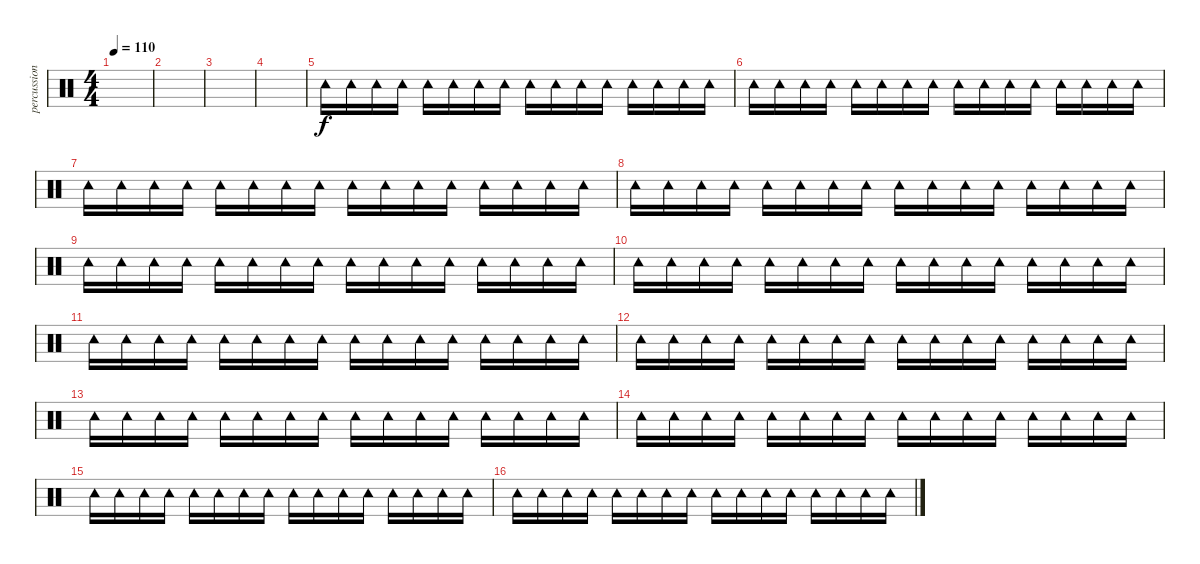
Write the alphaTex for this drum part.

\track ("percussioni" "percussion") {instrument percussion}
\staff {score}
\articulation defaults
\ts (4 4)
\tempo 110
\clef neutral
\ks c
|
|
|
|
"Tambourine (hit)".16 "Tambourine (hit)".16 "Tambourine (hit)".16 "Tambourine (hit)".16 "Tambourine (hit)".16 "Tambourine (hit)".16 "Tambourine (hit)".16 "Tambourine (hit)".16 "Tambourine (hit)".16 "Tambourine (hit)".16 "Tambourine (hit)".16 "Tambourine (hit)".16 "Tambourine (hit)".16 "Tambourine (hit)".16 "Tambourine (hit)".16 "Tambourine (hit)".16 |
"Tambourine (hit)".16 "Tambourine (hit)".16 "Tambourine (hit)".16 "Tambourine (hit)".16 "Tambourine (hit)".16 "Tambourine (hit)".16 "Tambourine (hit)".16 "Tambourine (hit)".16 "Tambourine (hit)".16 "Tambourine (hit)".16 "Tambourine (hit)".16 "Tambourine (hit)".16 "Tambourine (hit)".16 "Tambourine (hit)".16 "Tambourine (hit)".16 "Tambourine (hit)".16 |
"Tambourine (hit)".16 "Tambourine (hit)".16 "Tambourine (hit)".16 "Tambourine (hit)".16 "Tambourine (hit)".16 "Tambourine (hit)".16 "Tambourine (hit)".16 "Tambourine (hit)".16 "Tambourine (hit)".16 "Tambourine (hit)".16 "Tambourine (hit)".16 "Tambourine (hit)".16 "Tambourine (hit)".16 "Tambourine (hit)".16 "Tambourine (hit)".16 "Tambourine (hit)".16 |
"Tambourine (hit)".16 "Tambourine (hit)".16 "Tambourine (hit)".16 "Tambourine (hit)".16 "Tambourine (hit)".16 "Tambourine (hit)".16 "Tambourine (hit)".16 "Tambourine (hit)".16 "Tambourine (hit)".16 "Tambourine (hit)".16 "Tambourine (hit)".16 "Tambourine (hit)".16 "Tambourine (hit)".16 "Tambourine (hit)".16 "Tambourine (hit)".16 "Tambourine (hit)".16 |
"Tambourine (hit)".16 "Tambourine (hit)".16 "Tambourine (hit)".16 "Tambourine (hit)".16 "Tambourine (hit)".16 "Tambourine (hit)".16 "Tambourine (hit)".16 "Tambourine (hit)".16 "Tambourine (hit)".16 "Tambourine (hit)".16 "Tambourine (hit)".16 "Tambourine (hit)".16 "Tambourine (hit)".16 "Tambourine (hit)".16 "Tambourine (hit)".16 "Tambourine (hit)".16 |
"Tambourine (hit)".16 "Tambourine (hit)".16 "Tambourine (hit)".16 "Tambourine (hit)".16 "Tambourine (hit)".16 "Tambourine (hit)".16 "Tambourine (hit)".16 "Tambourine (hit)".16 "Tambourine (hit)".16 "Tambourine (hit)".16 "Tambourine (hit)".16 "Tambourine (hit)".16 "Tambourine (hit)".16 "Tambourine (hit)".16 "Tambourine (hit)".16 "Tambourine (hit)".16 |
"Tambourine (hit)".16 "Tambourine (hit)".16 "Tambourine (hit)".16 "Tambourine (hit)".16 "Tambourine (hit)".16 "Tambourine (hit)".16 "Tambourine (hit)".16 "Tambourine (hit)".16 "Tambourine (hit)".16 "Tambourine (hit)".16 "Tambourine (hit)".16 "Tambourine (hit)".16 "Tambourine (hit)".16 "Tambourine (hit)".16 "Tambourine (hit)".16 "Tambourine (hit)".16 |
"Tambourine (hit)".16 "Tambourine (hit)".16 "Tambourine (hit)".16 "Tambourine (hit)".16 "Tambourine (hit)".16 "Tambourine (hit)".16 "Tambourine (hit)".16 "Tambourine (hit)".16 "Tambourine (hit)".16 "Tambourine (hit)".16 "Tambourine (hit)".16 "Tambourine (hit)".16 "Tambourine (hit)".16 "Tambourine (hit)".16 "Tambourine (hit)".16 "Tambourine (hit)".16 |
"Tambourine (hit)".16 "Tambourine (hit)".16 "Tambourine (hit)".16 "Tambourine (hit)".16 "Tambourine (hit)".16 "Tambourine (hit)".16 "Tambourine (hit)".16 "Tambourine (hit)".16 "Tambourine (hit)".16 "Tambourine (hit)".16 "Tambourine (hit)".16 "Tambourine (hit)".16 "Tambourine (hit)".16 "Tambourine (hit)".16 "Tambourine (hit)".16 "Tambourine (hit)".16 |
"Tambourine (hit)".16 "Tambourine (hit)".16 "Tambourine (hit)".16 "Tambourine (hit)".16 "Tambourine (hit)".16 "Tambourine (hit)".16 "Tambourine (hit)".16 "Tambourine (hit)".16 "Tambourine (hit)".16 "Tambourine (hit)".16 "Tambourine (hit)".16 "Tambourine (hit)".16 "Tambourine (hit)".16 "Tambourine (hit)".16 "Tambourine (hit)".16 "Tambourine (hit)".16 |
"Tambourine (hit)".16 "Tambourine (hit)".16 "Tambourine (hit)".16 "Tambourine (hit)".16 "Tambourine (hit)".16 "Tambourine (hit)".16 "Tambourine (hit)".16 "Tambourine (hit)".16 "Tambourine (hit)".16 "Tambourine (hit)".16 "Tambourine (hit)".16 "Tambourine (hit)".16 "Tambourine (hit)".16 "Tambourine (hit)".16 "Tambourine (hit)".16 "Tambourine (hit)".16 |
"Tambourine (hit)".16 "Tambourine (hit)".16 "Tambourine (hit)".16 "Tambourine (hit)".16 "Tambourine (hit)".16 "Tambourine (hit)".16 "Tambourine (hit)".16 "Tambourine (hit)".16 "Tambourine (hit)".16 "Tambourine (hit)".16 "Tambourine (hit)".16 "Tambourine (hit)".16 "Tambourine (hit)".16 "Tambourine (hit)".16 "Tambourine (hit)".16 "Tambourine (hit)".16
